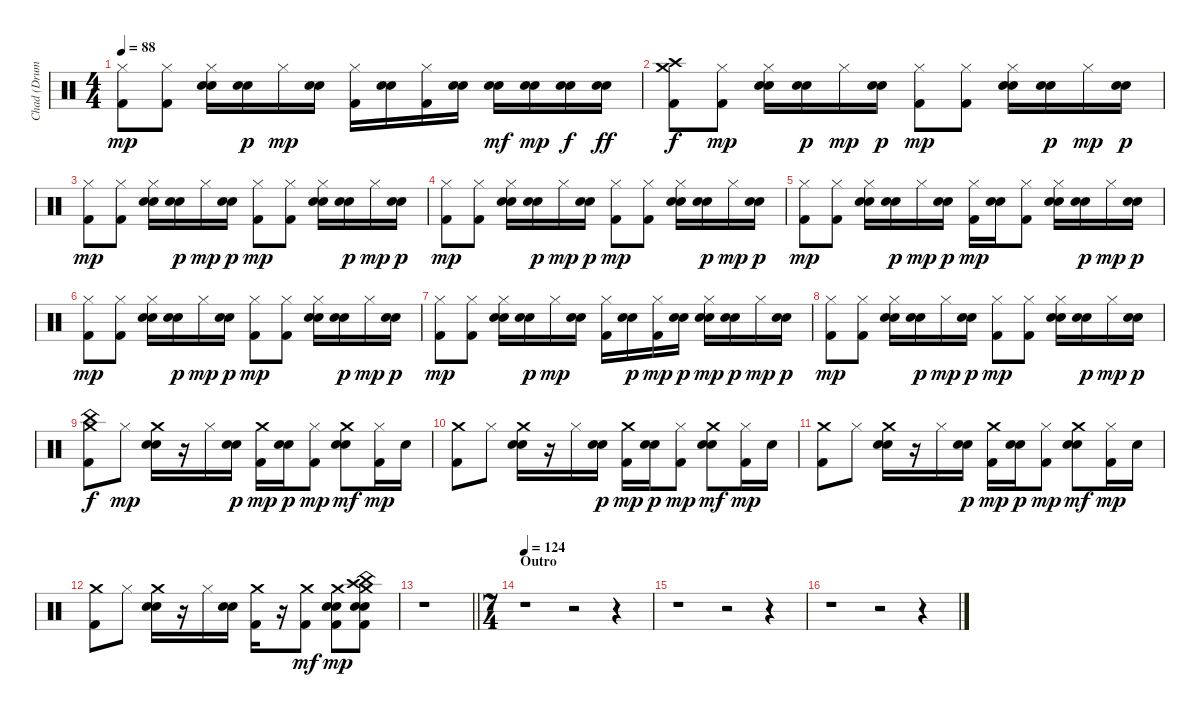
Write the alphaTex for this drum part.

\track ("Chad (Drums)" "Chad (Drum") {instrument percussion}
\staff {score}
\articulation defaults
\ts (4 4)
\tempo 88
\clef neutral
\ks c
("Hi-Hat (closed)" "Kick (hit) 2").8{dy mp} ("Hi-Hat (closed)" "Kick (hit) 2").8 ("Hi-Hat (closed)" "Electric Snare (hit)" "Snare (hit) 2").16 ("Electric Snare (hit)" "Snare (hit) 2").16{dy p} "Hi-Hat (closed)".16{dy mp} ("Electric Snare (hit)" "Snare (hit) 2").16 ("Hi-Hat (closed)" "Kick (hit) 2").16 ("Electric Snare (hit)" "Snare (hit) 2").16 ("Hi-Hat (closed)" "Kick (hit) 2").16 ("Electric Snare (hit)" "Snare (hit) 2").16 ("Electric Snare (hit)" "Snare (hit) 2").16{dy mf} ("Electric Snare (hit)" "Snare (hit) 2").16{dy mp} ("Electric Snare (hit)" "Snare (hit) 2").16{dy f} ("Electric Snare (hit)" "Snare (hit) 2").16{dy ff} |
("Crash high (hit)" "Crash medium (hit)" "Kick (hit) 2").8{dy f} ("Hi-Hat (closed)" "Kick (hit) 2").8{dy mp} ("Hi-Hat (closed)" "Electric Snare (hit)" "Snare (hit) 2").16 ("Electric Snare (hit)" "Snare (hit) 2").16{dy p} "Hi-Hat (closed)".16{dy mp} ("Electric Snare (hit)" "Snare (hit) 2").16{dy p} ("Hi-Hat (closed)" "Kick (hit) 2").8{dy mp} ("Hi-Hat (closed)" "Kick (hit) 2").8 ("Hi-Hat (closed)" "Electric Snare (hit)" "Snare (hit) 2").16 ("Electric Snare (hit)" "Snare (hit) 2").16{dy p} "Hi-Hat (closed)".16{dy mp} ("Electric Snare (hit)" "Snare (hit) 2").16{dy p} |
("Hi-Hat (closed)" "Kick (hit) 2").8{dy mp} ("Hi-Hat (closed)" "Kick (hit) 2").8 ("Hi-Hat (closed)" "Electric Snare (hit)" "Snare (hit) 2").16 ("Electric Snare (hit)" "Snare (hit) 2").16{dy p} "Hi-Hat (closed)".16{dy mp} ("Electric Snare (hit)" "Snare (hit) 2").16{dy p} ("Hi-Hat (closed)" "Kick (hit) 2").8{dy mp} ("Hi-Hat (closed)" "Kick (hit) 2").8 ("Hi-Hat (closed)" "Electric Snare (hit)" "Snare (hit) 2").16 ("Electric Snare (hit)" "Snare (hit) 2").16{dy p} "Hi-Hat (closed)".16{dy mp} ("Electric Snare (hit)" "Snare (hit) 2").16{dy p} |
("Hi-Hat (closed)" "Kick (hit) 2").8{dy mp} ("Hi-Hat (closed)" "Kick (hit) 2").8 ("Hi-Hat (closed)" "Electric Snare (hit)" "Snare (hit) 2").16 ("Electric Snare (hit)" "Snare (hit) 2").16{dy p} "Hi-Hat (closed)".16{dy mp} ("Electric Snare (hit)" "Snare (hit) 2").16{dy p} ("Hi-Hat (closed)" "Kick (hit) 2").8{dy mp} ("Hi-Hat (closed)" "Kick (hit) 2").8 ("Hi-Hat (closed)" "Electric Snare (hit)" "Snare (hit) 2").16 ("Electric Snare (hit)" "Snare (hit) 2").16{dy p} "Hi-Hat (closed)".16{dy mp} ("Electric Snare (hit)" "Snare (hit) 2").16{dy p} |
("Hi-Hat (closed)" "Kick (hit) 2").8{dy mp} ("Hi-Hat (closed)" "Kick (hit) 2").8 ("Hi-Hat (closed)" "Electric Snare (hit)" "Snare (hit) 2").16 ("Electric Snare (hit)" "Snare (hit) 2").16{dy p} "Hi-Hat (closed)".16{dy mp} ("Electric Snare (hit)" "Snare (hit) 2").16{dy p} ("Hi-Hat (closed)" "Kick (hit) 2").16{dy mp} ("Electric Snare (hit)" "Snare (hit) 2").16 ("Hi-Hat (closed)" "Kick (hit) 2").8 ("Hi-Hat (closed)" "Electric Snare (hit)" "Snare (hit) 2").16 ("Electric Snare (hit)" "Snare (hit) 2").16{dy p} "Hi-Hat (closed)".16{dy mp} ("Electric Snare (hit)" "Snare (hit) 2").16{dy p} |
("Hi-Hat (closed)" "Kick (hit) 2").8{dy mp} ("Hi-Hat (closed)" "Kick (hit) 2").8 ("Hi-Hat (closed)" "Electric Snare (hit)" "Snare (hit) 2").16 ("Electric Snare (hit)" "Snare (hit) 2").16{dy p} "Hi-Hat (closed)".16{dy mp} ("Electric Snare (hit)" "Snare (hit) 2").16{dy p} ("Hi-Hat (closed)" "Kick (hit) 2").8{dy mp} ("Hi-Hat (closed)" "Kick (hit) 2").8 ("Hi-Hat (closed)" "Electric Snare (hit)" "Snare (hit) 2").16 ("Electric Snare (hit)" "Snare (hit) 2").16{dy p} "Hi-Hat (closed)".16{dy mp} ("Electric Snare (hit)" "Snare (hit) 2").16{dy p} |
("Hi-Hat (closed)" "Kick (hit) 2").8{dy mp} ("Hi-Hat (closed)" "Kick (hit) 2").8 ("Hi-Hat (closed)" "Electric Snare (hit)" "Snare (hit) 2").16 ("Electric Snare (hit)" "Snare (hit) 2").16{dy p} "Hi-Hat (closed)".16{dy mp} ("Electric Snare (hit)" "Snare (hit) 2").16 ("Hi-Hat (closed)" "Kick (hit) 2").16 ("Electric Snare (hit)" "Snare (hit) 2").16{dy p} ("Hi-Hat (closed)" "Kick (hit) 2").16{dy mp} ("Electric Snare (hit)" "Snare (hit) 2").16{dy p} ("Hi-Hat (closed)" "Electric Snare (hit)" "Snare (hit) 2").16{dy mp} ("Electric Snare (hit)" "Snare (hit) 2").16{dy p} "Hi-Hat (closed)".16{dy mp} ("Electric Snare (hit)" "Snare (hit) 2").16{dy p} |
("Hi-Hat (closed)" "Kick (hit) 2").8{dy mp} ("Hi-Hat (closed)" "Kick (hit) 2").8 ("Hi-Hat (closed)" "Electric Snare (hit)" "Snare (hit) 2").16 ("Electric Snare (hit)" "Snare (hit) 2").16{dy p} "Hi-Hat (closed)".16{dy mp} ("Electric Snare (hit)" "Snare (hit) 2").16{dy p} ("Hi-Hat (closed)" "Kick (hit) 2").8{dy mp} ("Hi-Hat (closed)" "Kick (hit) 2").8 ("Hi-Hat (closed)" "Electric Snare (hit)" "Snare (hit) 2").16 ("Electric Snare (hit)" "Snare (hit) 2").16{dy p} "Hi-Hat (closed)".16{dy mp} ("Electric Snare (hit)" "Snare (hit) 2").16{dy p} |
("China (hit)" "Crash medium (hit)" "Kick (hit) 2").8{dy f} "Hi-Hat (closed)".8{dy mp} ("Crash medium (hit)" "Electric Snare (hit)" "Snare (hit) 2").16 r.16 "Hi-Hat (closed)".16 ("Electric Snare (hit)" "Snare (hit) 2").16{dy p} ("Crash medium (hit)" "Kick (hit) 2").16{dy mp} ("Electric Snare (hit)" "Snare (hit) 2").16{dy p} ("Hi-Hat (closed)" "Kick (hit) 2").8{dy mp} ("Crash medium (hit)" "Electric Snare (hit)" "Snare (hit) 2").8{dy mf} ("Hi-Hat (closed)" "Kick (hit) 2").16{dy mp} "Snare (hit) 2".16 |
("Crash medium (hit)" "Kick (hit) 2").8 "Hi-Hat (closed)".8 ("Crash medium (hit)" "Electric Snare (hit)" "Snare (hit) 2").16 r.16 "Hi-Hat (closed)".16 ("Electric Snare (hit)" "Snare (hit) 2").16{dy p} ("Crash medium (hit)" "Kick (hit) 2").16{dy mp} ("Electric Snare (hit)" "Snare (hit) 2").16{dy p} ("Hi-Hat (closed)" "Kick (hit) 2").8{dy mp} ("Crash medium (hit)" "Electric Snare (hit)" "Snare (hit) 2").8{dy mf} ("Hi-Hat (closed)" "Kick (hit) 2").16{dy mp} "Snare (hit) 2".16 |
("Crash medium (hit)" "Kick (hit) 2").8 "Hi-Hat (closed)".8 ("Crash medium (hit)" "Electric Snare (hit)" "Snare (hit) 2").16 r.16 "Hi-Hat (closed)".16 ("Electric Snare (hit)" "Snare (hit) 2").16{dy p} ("Crash medium (hit)" "Kick (hit) 2").16{dy mp} ("Electric Snare (hit)" "Snare (hit) 2").16{dy p} ("Hi-Hat (closed)" "Kick (hit) 2").8{dy mp} ("Crash medium (hit)" "Electric Snare (hit)" "Snare (hit) 2").8{dy mf} ("Hi-Hat (closed)" "Kick (hit) 2").16{dy mp} "Snare (hit) 2".16 |
("Crash medium (hit)" "Kick (hit) 2").8 "Hi-Hat (closed)".8 ("Crash medium (hit)" "Electric Snare (hit)" "Snare (hit) 2").16 r.16 "Hi-Hat (closed)".16 ("Electric Snare (hit)" "Snare (hit) 2").16 ("Crash medium (hit)" "Kick (hit) 2").16 r.16 ("Crash medium (hit)" "Kick (hit) 2").8{dy mf} ("Crash medium (hit)" "Electric Snare (hit)" "Snare (hit) 2" "Kick (hit) 2").8{dy mp} ("Crash medium (hit)" "Crash high (hit)" "China (hit)" "Snare (hit) 2" "Electric Snare (hit)" "Kick (hit) 2").8 |
\barLineRight lightlight
r.1 |
\ts (7 4)
\section ("" "Outro")
\tempo 124
r.1 r.2 r.4 |
r.1 r.2 r.4 |
r.1 r.2 r.4
